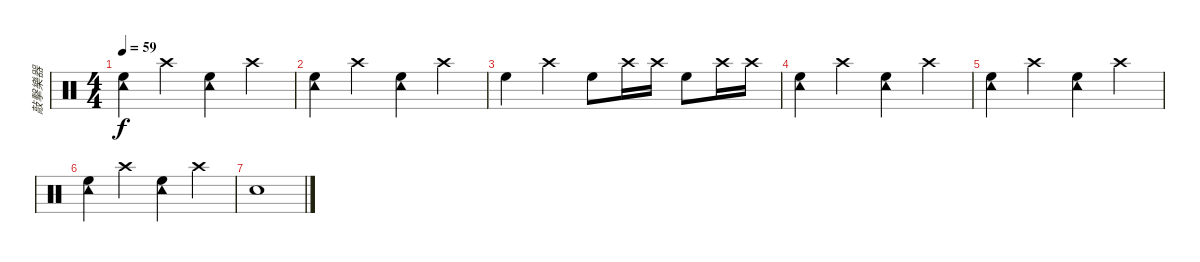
\track ("敲擊樂器" "敲擊樂器") {instrument percussion}
\staff {score}
\articulation defaults
\ts (4 4)
\tempo 59
\clef neutral
\ks c
("High Floor Tom (hit)" "Tambourine (hit)").4{dy f} "Crash high (hit)".4 ("High Floor Tom (hit)" "Tambourine (hit)").4 "Crash high (hit)".4 |
("High Floor Tom (hit)" "Tambourine (hit)").4 "Crash high (hit)".4 ("High Floor Tom (hit)" "Tambourine (hit)").4 "Crash high (hit)".4 |
"High Floor Tom (hit)".4 "Crash high (hit)".4 "High Floor Tom (hit)".8 "Crash high (hit)".16 "Crash high (hit)".16 "High Floor Tom (hit)".8 "Crash high (hit)".16 "Crash high (hit)".16 |
("High Floor Tom (hit)" "Tambourine (hit)").4 "Crash high (hit)".4 ("High Floor Tom (hit)" "Tambourine (hit)").4 "Crash high (hit)".4 |
("High Floor Tom (hit)" "Tambourine (hit)").4 "Crash high (hit)".4 ("High Floor Tom (hit)" "Tambourine (hit)").4 "Crash high (hit)".4 |
("High Floor Tom (hit)" "Tambourine (hit)").4 "Crash high (hit)".4 ("High Floor Tom (hit)" "Tambourine (hit)").4 "Crash high (hit)".4 |
"Electric Snare (hit)".1
